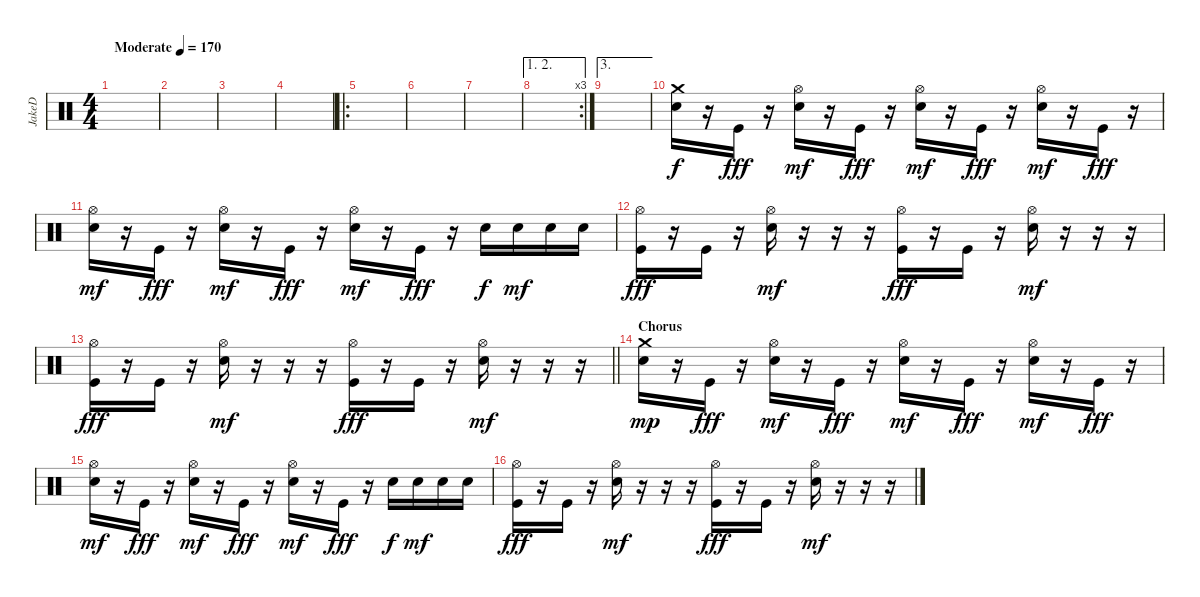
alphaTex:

\track ("JakeD" "JakeD") {instrument percussion}
\staff {score}
\articulation defaults
\ts (4 4)
\tempo (170 "Moderate")
\clef neutral
\ks c
|
|
|
|
\ro
|
|
|
\ae (1 2)
\rc 3
|
\ae 3
|
("Crash medium (hit)" "Electric Snare (hit)").16 r.16 "Kick (hit)".16{dy fff} r.16 ("Hi-Hat (open)" "Electric Snare (hit)").16{dy mf} r.16 "Kick (hit)".16{dy fff} r.16 ("Hi-Hat (open)" "Electric Snare (hit)").16{dy mf} r.16 "Kick (hit)".16{dy fff} r.16 ("Hi-Hat (open)" "Electric Snare (hit)").16{dy mf} r.16 "Kick (hit)".16{dy fff} r.16 |
("Hi-Hat (open)" "Electric Snare (hit)").16{dy mf} r.16 "Kick (hit)".16{dy fff} r.16 ("Hi-Hat (open)" "Electric Snare (hit)").16{dy mf} r.16 "Kick (hit)".16{dy fff} r.16 ("Hi-Hat (open)" "Electric Snare (hit)").16{dy mf} r.16 "Kick (hit)".16{dy fff} r.16 "Electric Snare (hit)".16{dy f} "Electric Snare (hit)".16{dy mf} "Electric Snare (hit)".16 "Electric Snare (hit)".16 |
("Hi-Hat (open)" "Kick (hit)").16{dy fff} r.16 "Kick (hit)".16 r.16 ("Hi-Hat (open)" "Electric Snare (hit)").16{dy mf} r.16 r.16 r.16 ("Hi-Hat (open)" "Kick (hit)").16{dy fff} r.16 "Kick (hit)".16 r.16 ("Hi-Hat (open)" "Electric Snare (hit)").16{dy mf} r.16 r.16 r.16 |
\barLineRight lightlight
("Hi-Hat (open)" "Kick (hit)").16{dy fff} r.16 "Kick (hit)".16 r.16 ("Hi-Hat (open)" "Electric Snare (hit)").16{dy mf} r.16 r.16 r.16 ("Hi-Hat (open)" "Kick (hit)").16{dy fff} r.16 "Kick (hit)".16 r.16 ("Hi-Hat (open)" "Electric Snare (hit)").16{dy mf} r.16 r.16 r.16 |
\section ("" "Chorus")
("Crash medium (hit)" "Electric Snare (hit)").16{dy mp} r.16 "Kick (hit)".16{dy fff} r.16 ("Hi-Hat (open)" "Electric Snare (hit)").16{dy mf} r.16 "Kick (hit)".16{dy fff} r.16 ("Hi-Hat (open)" "Electric Snare (hit)").16{dy mf} r.16 "Kick (hit)".16{dy fff} r.16 ("Hi-Hat (open)" "Electric Snare (hit)").16{dy mf} r.16 "Kick (hit)".16{dy fff} r.16 |
("Hi-Hat (open)" "Electric Snare (hit)").16{dy mf} r.16 "Kick (hit)".16{dy fff} r.16 ("Hi-Hat (open)" "Electric Snare (hit)").16{dy mf} r.16 "Kick (hit)".16{dy fff} r.16 ("Hi-Hat (open)" "Electric Snare (hit)").16{dy mf} r.16 "Kick (hit)".16{dy fff} r.16 "Electric Snare (hit)".16{dy f} "Electric Snare (hit)".16{dy mf} "Electric Snare (hit)".16 "Electric Snare (hit)".16 |
("Hi-Hat (open)" "Kick (hit)").16{dy fff} r.16 "Kick (hit)".16 r.16 ("Hi-Hat (open)" "Electric Snare (hit)").16{dy mf} r.16 r.16 r.16 ("Hi-Hat (open)" "Kick (hit)").16{dy fff} r.16 "Kick (hit)".16 r.16 ("Hi-Hat (open)" "Electric Snare (hit)").16{dy mf} r.16 r.16 r.16
